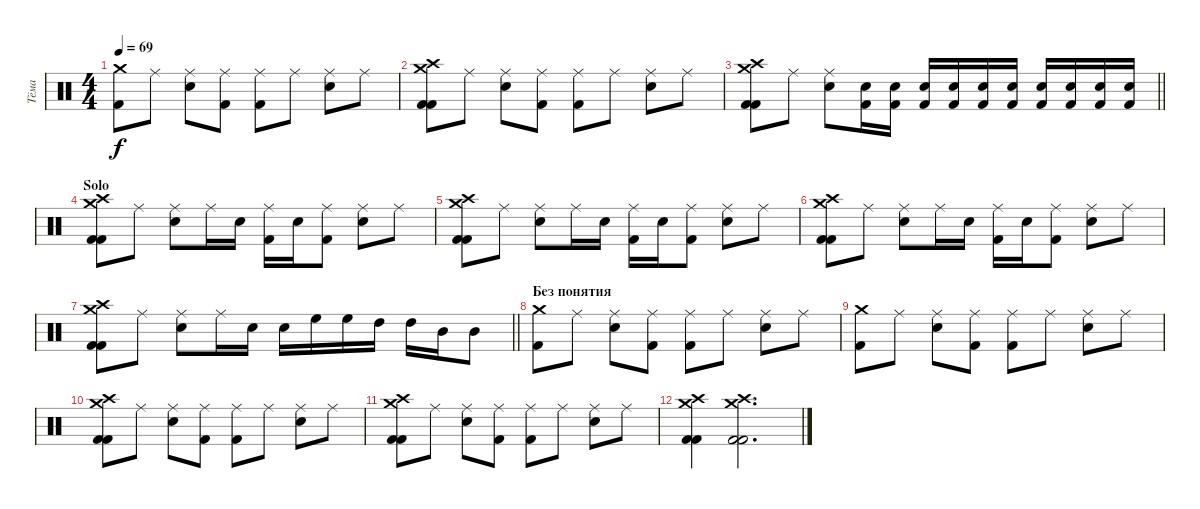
\track ("Тёма" "Тёма") {instrument percussion}
\staff {score}
\articulation defaults
\ts (4 4)
\tempo 69
\clef neutral
\ks c
("Crash medium (hit)" "Kick (hit) 2").8{dy f} "Ride (middle)".8 ("Ride (middle)" "Snare (hit) 2").8 ("Ride (middle)" "Kick (hit) 2").8 ("Ride (middle)" "Kick (hit) 2").8 "Ride (middle)".8 ("Ride (middle)" "Snare (hit) 2").8 "Ride (middle)".8 |
("Crash medium (hit)" "Crash high (hit)" "Kick (hit) 2" "Kick (hit) 2").8 "Ride (middle)".8 ("Ride (middle)" "Snare (hit) 2").8 ("Ride (middle)" "Kick (hit) 2").8 ("Ride (middle)" "Kick (hit) 2").8 "Ride (middle)".8 ("Ride (middle)" "Snare (hit) 2").8 "Ride (middle)".8 |
\barLineRight lightlight
("Crash medium (hit)" "Crash high (hit)" "Kick (hit) 2" "Kick (hit) 2").8 "Ride (middle)".8 ("Ride (middle)" "Snare (hit) 2").8 ("Snare (hit) 2" "Kick (hit) 2").16 ("Snare (hit) 2" "Kick (hit) 2").16 ("Snare (hit) 2" "Kick (hit) 2").16 ("Snare (hit) 2" "Kick (hit) 2").16 ("Snare (hit) 2" "Kick (hit) 2").16 ("Snare (hit) 2" "Kick (hit) 2").16 ("Snare (hit) 2" "Kick (hit) 2").16 ("Snare (hit) 2" "Kick (hit) 2").16 ("Snare (hit) 2" "Kick (hit) 2").16 ("Snare (hit) 2" "Kick (hit) 2").16 |
\section ("" "Solo")
("Crash medium (hit)" "Crash high (hit)" "Kick (hit) 2" "Kick (hit) 2").8 "Ride (middle)".8 ("Ride (middle)" "Snare (hit) 2").8 "Ride (middle)".16 "Snare (hit) 2".16 ("Ride (middle)" "Kick (hit) 2").16 "Snare (hit) 2".16 ("Ride (middle)" "Kick (hit) 2").8 ("Ride (middle)" "Snare (hit) 2").8 "Ride (middle)".8 |
("Crash medium (hit)" "Crash high (hit)" "Kick (hit) 2" "Kick (hit) 2").8 "Ride (middle)".8 ("Ride (middle)" "Snare (hit) 2").8 "Ride (middle)".16 "Snare (hit) 2".16 ("Ride (middle)" "Kick (hit) 2").16 "Snare (hit) 2".16 ("Ride (middle)" "Kick (hit) 2").8 ("Ride (middle)" "Snare (hit) 2").8 "Ride (middle)".8 |
("Crash medium (hit)" "Crash high (hit)" "Kick (hit) 2" "Kick (hit) 2").8 "Ride (middle)".8 ("Ride (middle)" "Snare (hit) 2").8 "Ride (middle)".16 "Snare (hit) 2".16 ("Ride (middle)" "Kick (hit) 2").16 "Snare (hit) 2".16 ("Ride (middle)" "Kick (hit) 2").8 ("Ride (middle)" "Snare (hit) 2").8 "Ride (middle)".8 |
\barLineRight lightlight
("Crash medium (hit)" "Crash high (hit)" "Kick (hit) 2" "Kick (hit) 2").8 "Ride (middle)".8 ("Ride (middle)" "Snare (hit) 2").8 "Ride (middle)".16 "Snare (hit) 2".16 "Snare (hit) 2".16 "High Floor Tom (hit)".16 "High Floor Tom (hit)".16 "High Tom (hit)".16 "High Tom (hit)".16 "Mid Tom (hit)".16 "Mid Tom (hit)".8 |
\section ("" "Без понятия")
("Crash medium (hit)" "Kick (hit) 2").8 "Ride (middle)".8 ("Ride (middle)" "Snare (hit) 2").8 ("Ride (middle)" "Kick (hit) 2").8 ("Ride (middle)" "Kick (hit) 2").8 "Ride (middle)".8 ("Ride (middle)" "Snare (hit) 2").8 "Ride (middle)".8 |
("Crash medium (hit)" "Kick (hit) 2").8 "Ride (middle)".8 ("Ride (middle)" "Snare (hit) 2").8 ("Ride (middle)" "Kick (hit) 2").8 ("Ride (middle)" "Kick (hit) 2").8 "Ride (middle)".8 ("Ride (middle)" "Snare (hit) 2").8 "Ride (middle)".8 |
("Crash medium (hit)" "Crash high (hit)" "Kick (hit) 2" "Kick (hit) 2").8 "Ride (middle)".8 ("Ride (middle)" "Snare (hit) 2").8 ("Ride (middle)" "Kick (hit) 2").8 ("Ride (middle)" "Kick (hit) 2").8 "Ride (middle)".8 ("Ride (middle)" "Snare (hit) 2").8 "Ride (middle)".8 |
("Crash medium (hit)" "Crash high (hit)" "Kick (hit) 2" "Kick (hit) 2").8 "Ride (middle)".8 ("Ride (middle)" "Snare (hit) 2").8 ("Ride (middle)" "Kick (hit) 2").8 ("Ride (middle)" "Kick (hit) 2").8 "Ride (middle)".8 ("Ride (middle)" "Snare (hit) 2").8 "Ride (middle)".8 |
("Crash medium (hit)" "Crash high (hit)" "Kick (hit) 2" "Kick (hit) 2").4 ("Crash medium (hit)" "Crash high (hit)" "Kick (hit) 2" "Kick (hit) 2").2{d}
